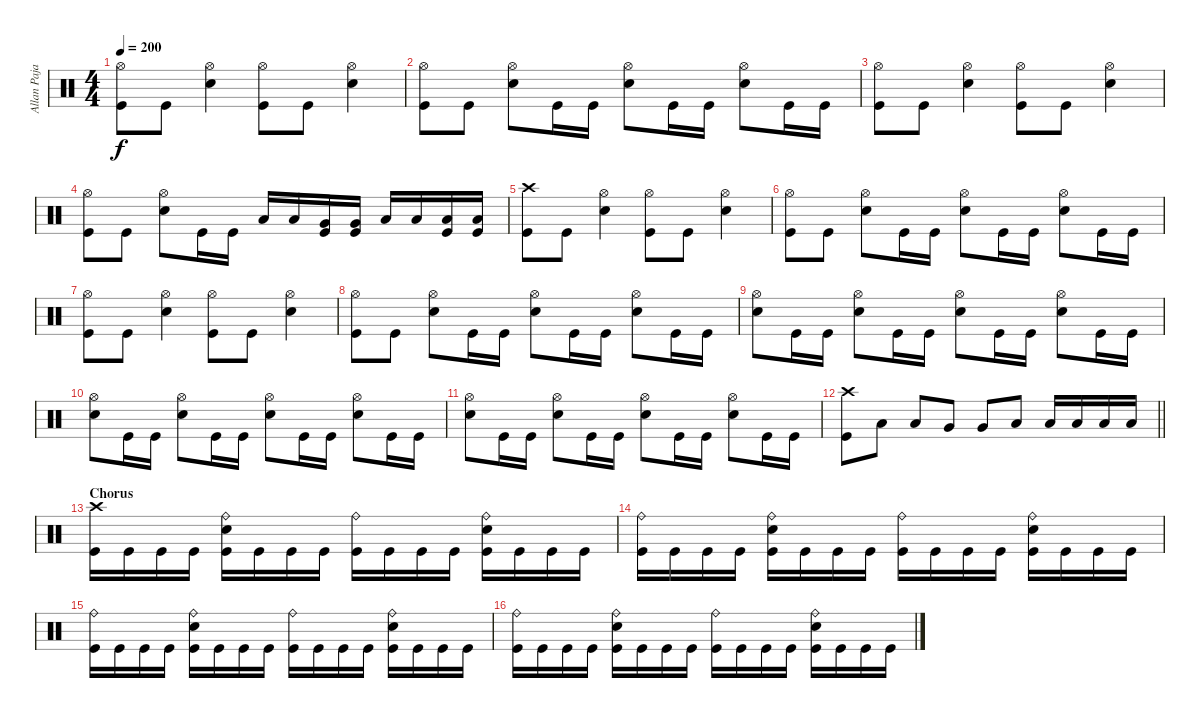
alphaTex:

\track ("Allan Pajarin (Drums)" "Allan Paja") {instrument percussion}
\staff {score}
\articulation defaults
\ts (4 4)
\tempo 200
\clef neutral
\ks c
("Kick (hit)" "Hi-Hat (open)").8{dy f} "Kick (hit)".8 ("Hi-Hat (open)" "Electric Snare (hit)").4 ("Hi-Hat (open)" "Kick (hit)").8 "Kick (hit)".8 ("Hi-Hat (open)" "Electric Snare (hit)").4 |
("Kick (hit)" "Hi-Hat (open)").8 "Kick (hit)".8 ("Hi-Hat (open)" "Electric Snare (hit)").8 "Kick (hit)".16 "Kick (hit)".16 ("Hi-Hat (open)" "Electric Snare (hit)").8 "Kick (hit)".16 "Kick (hit)".16 ("Hi-Hat (open)" "Electric Snare (hit)").8 "Kick (hit)".16 "Kick (hit)".16 |
("Kick (hit)" "Hi-Hat (open)").8 "Kick (hit)".8 ("Hi-Hat (open)" "Electric Snare (hit)").4 ("Hi-Hat (open)" "Kick (hit)").8 "Kick (hit)".8 ("Hi-Hat (open)" "Electric Snare (hit)").4 |
("Kick (hit)" "Hi-Hat (open)").8 "Kick (hit)".8 ("Hi-Hat (open)" "Electric Snare (hit)").8 "Kick (hit)".16 "Kick (hit)".16 "Low Tom (hit)".16 "Low Tom (hit)".16 ("Very Low Tom (hit)" "Kick (hit)").16 ("Very Low Tom (hit)" "Kick (hit)").16 "Low Floor Tom (hit)".16 "Low Floor Tom (hit)".16 ("Low Floor Tom (hit)" "Kick (hit)").16 ("Low Floor Tom (hit)" "Kick (hit)").16 |
("Crash high (hit)" "Kick (hit)").8 "Kick (hit)".8 ("Hi-Hat (open)" "Electric Snare (hit)").4 ("Hi-Hat (open)" "Kick (hit)").8 "Kick (hit)".8 ("Hi-Hat (open)" "Electric Snare (hit)").4 |
("Hi-Hat (open)" "Kick (hit)").8 "Kick (hit)".8 ("Hi-Hat (open)" "Electric Snare (hit)").8 "Kick (hit)".16 "Kick (hit)".16 ("Hi-Hat (open)" "Electric Snare (hit)").8 "Kick (hit)".16 "Kick (hit)".16 ("Hi-Hat (open)" "Electric Snare (hit)").8 "Kick (hit)".16 "Kick (hit)".16 |
("Hi-Hat (open)" "Kick (hit)").8 "Kick (hit)".8 ("Hi-Hat (open)" "Electric Snare (hit)").4 ("Hi-Hat (open)" "Kick (hit)").8 "Kick (hit)".8 ("Hi-Hat (open)" "Electric Snare (hit)").4 |
("Hi-Hat (open)" "Kick (hit)").8 "Kick (hit)".8 ("Hi-Hat (open)" "Electric Snare (hit)").8 "Kick (hit)".16 "Kick (hit)".16 ("Hi-Hat (open)" "Electric Snare (hit)").8 "Kick (hit)".16 "Kick (hit)".16 ("Hi-Hat (open)" "Electric Snare (hit)").8 "Kick (hit)".16 "Kick (hit)".16 |
("Hi-Hat (open)" "Electric Snare (hit)").8 "Kick (hit)".16 "Kick (hit)".16 ("Hi-Hat (open)" "Electric Snare (hit)").8 "Kick (hit)".16 "Kick (hit)".16 ("Hi-Hat (open)" "Electric Snare (hit)").8 "Kick (hit)".16 "Kick (hit)".16 ("Hi-Hat (open)" "Electric Snare (hit)").8 "Kick (hit)".16 "Kick (hit)".16 |
("Hi-Hat (open)" "Electric Snare (hit)").8 "Kick (hit)".16 "Kick (hit)".16 ("Hi-Hat (open)" "Electric Snare (hit)").8 "Kick (hit)".16 "Kick (hit)".16 ("Hi-Hat (open)" "Electric Snare (hit)").8 "Kick (hit)".16 "Kick (hit)".16 ("Hi-Hat (open)" "Electric Snare (hit)").8 "Kick (hit)".16 "Kick (hit)".16 |
("Hi-Hat (open)" "Electric Snare (hit)").8 "Kick (hit)".16 "Kick (hit)".16 ("Hi-Hat (open)" "Electric Snare (hit)").8 "Kick (hit)".16 "Kick (hit)".16 ("Hi-Hat (open)" "Electric Snare (hit)").8 "Kick (hit)".16 "Kick (hit)".16 ("Hi-Hat (open)" "Electric Snare (hit)").8 "Kick (hit)".16 "Kick (hit)".16 |
\barLineRight lightlight
("Kick (hit)" "Crash high (hit)").8 "Low Tom (hit)".8 "Low Tom (hit)".8 "Very Low Tom (hit)".8 "Very Low Tom (hit)".8 "Low Floor Tom (hit)".8 "Low Floor Tom (hit)".16 "Low Floor Tom (hit)".16 "Low Floor Tom (hit)".16 "Low Floor Tom (hit)".16 |
\section ("" "Chorus")
("Crash high (hit)" "Kick (hit)").16 "Kick (hit)".16 "Kick (hit)".16 "Kick (hit)".16 ("Ride (bell)" "Electric Snare (hit)" "Kick (hit)").16 "Kick (hit)".16 "Kick (hit)".16 "Kick (hit)".16 ("Ride (bell)" "Kick (hit)").16 "Kick (hit)".16 "Kick (hit)".16 "Kick (hit)".16 ("Ride (bell)" "Electric Snare (hit)" "Kick (hit)").16 "Kick (hit)".16 "Kick (hit)".16 "Kick (hit)".16 |
("Ride (bell)" "Kick (hit)").16 "Kick (hit)".16 "Kick (hit)".16 "Kick (hit)".16 ("Ride (bell)" "Electric Snare (hit)" "Kick (hit)").16 "Kick (hit)".16 "Kick (hit)".16 "Kick (hit)".16 ("Ride (bell)" "Kick (hit)").16 "Kick (hit)".16 "Kick (hit)".16 "Kick (hit)".16 ("Ride (bell)" "Electric Snare (hit)" "Kick (hit)").16 "Kick (hit)".16 "Kick (hit)".16 "Kick (hit)".16 |
("Ride (bell)" "Kick (hit)").16 "Kick (hit)".16 "Kick (hit)".16 "Kick (hit)".16 ("Ride (bell)" "Electric Snare (hit)" "Kick (hit)").16 "Kick (hit)".16 "Kick (hit)".16 "Kick (hit)".16 ("Ride (bell)" "Kick (hit)").16 "Kick (hit)".16 "Kick (hit)".16 "Kick (hit)".16 ("Ride (bell)" "Electric Snare (hit)" "Kick (hit)").16 "Kick (hit)".16 "Kick (hit)".16 "Kick (hit)".16 |
("Ride (bell)" "Kick (hit)").16 "Kick (hit)".16 "Kick (hit)".16 "Kick (hit)".16 ("Ride (bell)" "Electric Snare (hit)" "Kick (hit)").16 "Kick (hit)".16 "Kick (hit)".16 "Kick (hit)".16 ("Ride (bell)" "Kick (hit)").16 "Kick (hit)".16 "Kick (hit)".16 "Kick (hit)".16 ("Ride (bell)" "Electric Snare (hit)" "Kick (hit)").16 "Kick (hit)".16 "Kick (hit)".16 "Kick (hit)".16
